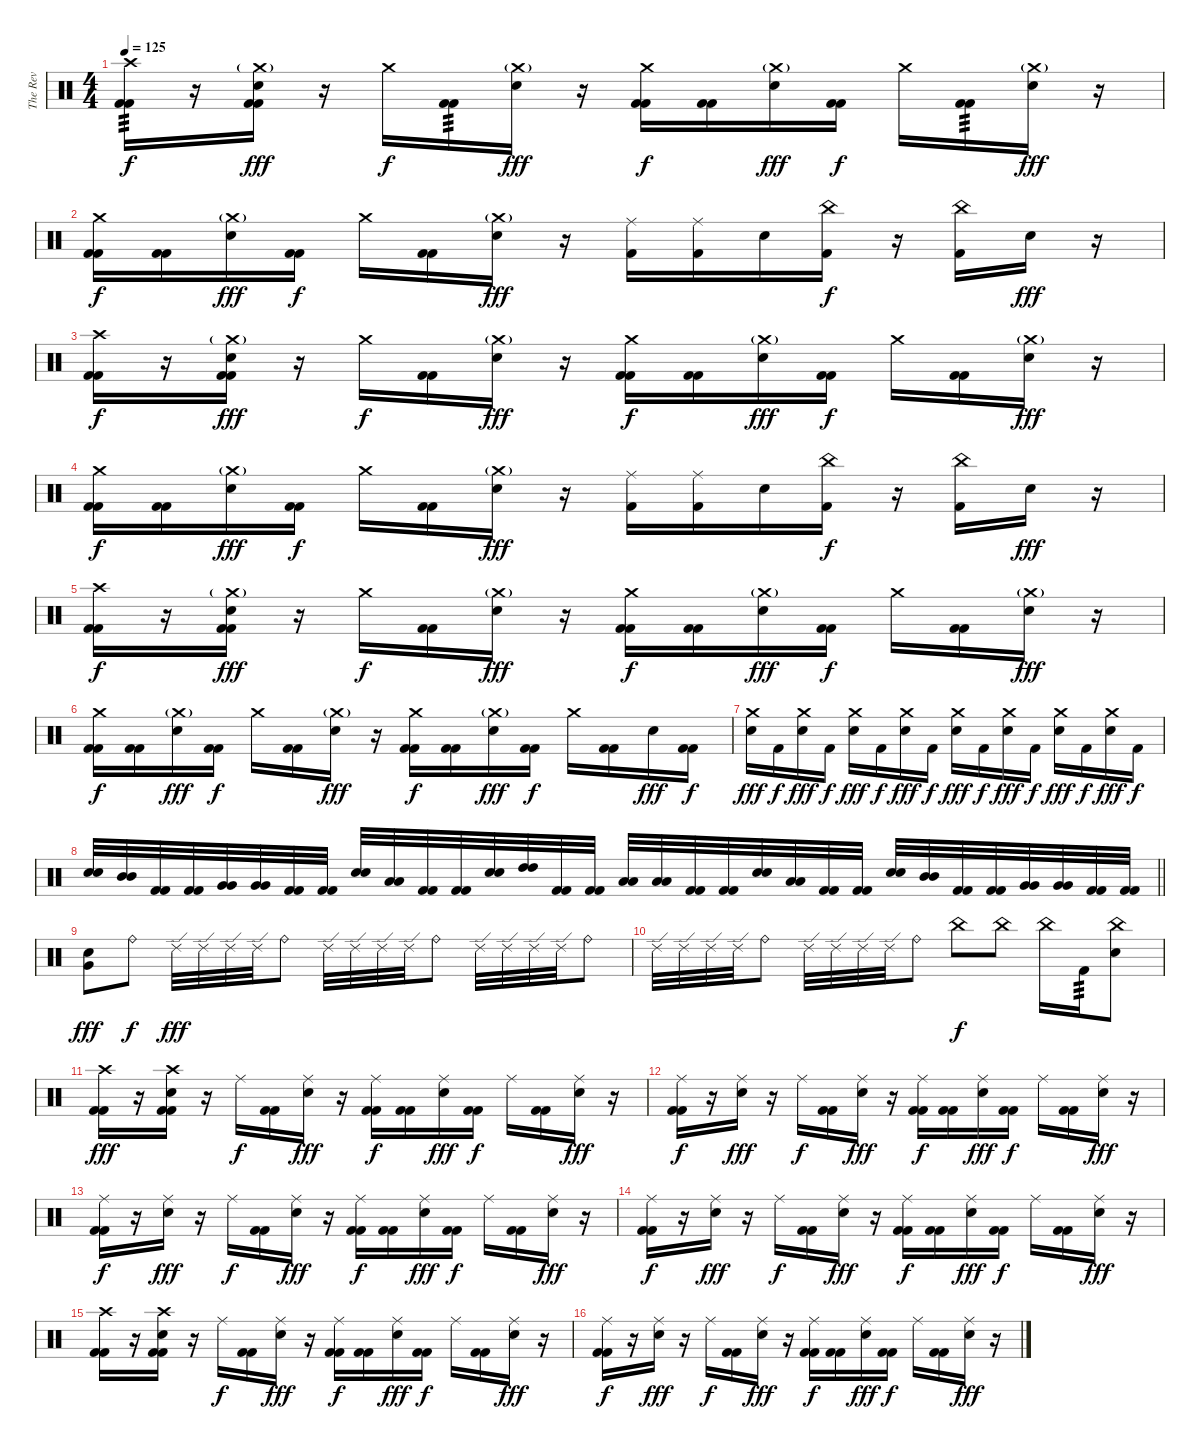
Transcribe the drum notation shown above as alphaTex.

\track ("The Rev" "The Rev") {instrument percussion}
\staff {score}
\articulation defaults
\ts (4 4)
\tempo 125
\clef neutral
\ks c
("Crash high (hit)" "Kick (hit) 2" "Kick (hit) 2").16{tp 3 dy f} r.16 ("Crash medium (hit)"{g} "Electric Snare (hit)" "Kick (hit) 2" "Kick (hit) 2").16{dy fff} r.16 "Crash medium (hit)".16{dy f} ("Kick (hit) 2" "Kick (hit) 2").16{tp 3} ("Crash medium (hit)"{g} "Electric Snare (hit)").16{dy fff} r.16 ("Crash medium (hit)" "Kick (hit) 2" "Kick (hit) 2").16{dy f} ("Kick (hit) 2" "Kick (hit) 2").16 ("Crash medium (hit)"{g} "Electric Snare (hit)").16{dy fff} ("Kick (hit) 2" "Kick (hit) 2").16{dy f} "Crash medium (hit)".16 ("Kick (hit) 2" "Kick (hit) 2").16{tp 3} ("Crash medium (hit)"{g} "Electric Snare (hit)").16{dy fff} r.16 |
("Crash medium (hit)" "Kick (hit) 2" "Kick (hit) 2").16{dy f} ("Kick (hit) 2" "Kick (hit) 2").16 ("Crash medium (hit)"{g} "Electric Snare (hit)").16{dy fff} ("Kick (hit) 2" "Kick (hit) 2").16{dy f} "Crash medium (hit)".16 ("Kick (hit) 2" "Kick (hit) 2").16 ("Crash medium (hit)"{g} "Electric Snare (hit)").16{dy fff} r.16 ("Ride (middle)" "Kick (hit) 2").16 ("Ride (middle)" "Kick (hit) 2").16 "Electric Snare (hit)".16 ("China (hit)" "Kick (hit) 2").16{dy f} r.16 ("China (hit)" "Kick (hit) 2").16 "Electric Snare (hit)".16{dy fff} r.16 |
("Crash high (hit)" "Kick (hit) 2" "Kick (hit) 2").16{dy f} r.16 ("Crash medium (hit)"{g} "Electric Snare (hit)" "Kick (hit) 2" "Kick (hit) 2").16{dy fff} r.16 "Crash medium (hit)".16{dy f} ("Kick (hit) 2" "Kick (hit) 2").16 ("Crash medium (hit)"{g} "Electric Snare (hit)").16{dy fff} r.16 ("Crash medium (hit)" "Kick (hit) 2" "Kick (hit) 2").16{dy f} ("Kick (hit) 2" "Kick (hit) 2").16 ("Crash medium (hit)"{g} "Electric Snare (hit)").16{dy fff} ("Kick (hit) 2" "Kick (hit) 2").16{dy f} "Crash medium (hit)".16 ("Kick (hit) 2" "Kick (hit) 2").16 ("Crash medium (hit)"{g} "Electric Snare (hit)").16{dy fff} r.16 |
("Crash medium (hit)" "Kick (hit) 2" "Kick (hit) 2").16{dy f} ("Kick (hit) 2" "Kick (hit) 2").16 ("Crash medium (hit)"{g} "Electric Snare (hit)").16{dy fff} ("Kick (hit) 2" "Kick (hit) 2").16{dy f} "Crash medium (hit)".16 ("Kick (hit) 2" "Kick (hit) 2").16 ("Crash medium (hit)"{g} "Electric Snare (hit)").16{dy fff} r.16 ("Ride (middle)" "Kick (hit) 2").16 ("Ride (middle)" "Kick (hit) 2").16 "Electric Snare (hit)".16 ("China (hit)" "Kick (hit) 2").16{dy f} r.16 ("China (hit)" "Kick (hit) 2").16 "Electric Snare (hit)".16{dy fff} r.16 |
("Crash high (hit)" "Kick (hit) 2" "Kick (hit) 2").16{dy f} r.16 ("Crash medium (hit)"{g} "Electric Snare (hit)" "Kick (hit) 2" "Kick (hit) 2").16{dy fff} r.16 "Crash medium (hit)".16{dy f} ("Kick (hit) 2" "Kick (hit) 2").16 ("Crash medium (hit)"{g} "Electric Snare (hit)").16{dy fff} r.16 ("Crash medium (hit)" "Kick (hit) 2" "Kick (hit) 2").16{dy f} ("Kick (hit) 2" "Kick (hit) 2").16 ("Crash medium (hit)"{g} "Electric Snare (hit)").16{dy fff} ("Kick (hit) 2" "Kick (hit) 2").16{dy f} "Crash medium (hit)".16 ("Kick (hit) 2" "Kick (hit) 2").16 ("Crash medium (hit)"{g} "Electric Snare (hit)").16{dy fff} r.16 |
("Crash medium (hit)" "Kick (hit) 2" "Kick (hit) 2").16{dy f} ("Kick (hit) 2" "Kick (hit) 2").16 ("Crash medium (hit)"{g} "Electric Snare (hit)").16{dy fff} ("Kick (hit) 2" "Kick (hit) 2").16{dy f} "Crash medium (hit)".16 ("Kick (hit) 2" "Kick (hit) 2").16 ("Crash medium (hit)"{g} "Electric Snare (hit)").16{dy fff} r.16 ("Crash medium (hit)" "Kick (hit) 2" "Kick (hit) 2").16{dy f} ("Kick (hit) 2" "Kick (hit) 2").16 ("Crash medium (hit)"{g} "Electric Snare (hit)").16{dy fff} ("Kick (hit) 2" "Kick (hit) 2").16{dy f} "Crash medium (hit)".16 ("Kick (hit) 2" "Kick (hit) 2").16 "Electric Snare (hit)".16{dy fff} ("Kick (hit) 2" "Kick (hit) 2").16{dy f} |
("Crash medium (hit)" "Electric Snare (hit)").16{dy fff} "Kick (hit) 2".16{dy f} ("Crash medium (hit)" "Electric Snare (hit)").16{dy fff} "Kick (hit) 2".16{dy f} ("Crash medium (hit)" "Electric Snare (hit)").16{dy fff} "Kick (hit) 2".16{dy f} ("Crash medium (hit)" "Electric Snare (hit)").16{dy fff} "Kick (hit) 2".16{dy f} ("Crash medium (hit)" "Electric Snare (hit)").16{dy fff} "Kick (hit) 2".16{dy f} ("Crash medium (hit)" "Electric Snare (hit)").16{dy fff} "Kick (hit) 2".16{dy f} ("Crash medium (hit)" "Electric Snare (hit)").16{dy fff} "Kick (hit) 2".16{dy f} ("Crash medium (hit)" "Electric Snare (hit)").16{dy fff} "Kick (hit) 2".16{dy f} |
\barLineRight lightlight
("Electric Snare (hit)" "Electric Snare (hit)").32 ("Mid Tom (hit)" "Mid Tom (hit)").32 ("Kick (hit) 2" "Kick (hit) 2").32 ("Kick (hit) 2" "Kick (hit) 2").32 ("Very Low Tom (hit)" "Very Low Tom (hit)").32 ("Very Low Tom (hit)" "Very Low Tom (hit)").32 ("Kick (hit) 2" "Kick (hit) 2").32 ("Kick (hit) 2" "Kick (hit) 2").32 ("Electric Snare (hit)" "Electric Snare (hit)").32 ("Low Tom (hit)" "Low Tom (hit)").32 ("Kick (hit) 2" "Kick (hit) 2").32 ("Kick (hit) 2" "Kick (hit) 2").32 ("Electric Snare (hit)" "Electric Snare (hit)").32 ("High Tom (hit)" "High Tom (hit)").32 ("Kick (hit) 2" "Kick (hit) 2").32 ("Kick (hit) 2" "Kick (hit) 2").32 ("Low Floor Tom (hit)" "Low Floor Tom (hit)").32 ("Low Floor Tom (hit)" "Low Floor Tom (hit)").32 ("Kick (hit) 2" "Kick (hit) 2").32 ("Kick (hit) 2" "Kick (hit) 2").32 ("Electric Snare (hit)" "Electric Snare (hit)").32 ("Low Tom (hit)" "Low Tom (hit)").32 ("Kick (hit) 2" "Kick (hit) 2").32 ("Kick (hit) 2" "Kick (hit) 2").32 ("Electric Snare (hit)" "Electric Snare (hit)").32 ("Mid Tom (hit)" "Mid Tom (hit)").32 ("Kick (hit) 2" "Kick (hit) 2").32 ("Kick (hit) 2" "Kick (hit) 2").32 ("Very Low Tom (hit)" "Very Low Tom (hit)").32 ("Very Low Tom (hit)" "Very Low Tom (hit)").32 ("Kick (hit) 2" "Kick (hit) 2").32 ("Kick (hit) 2" "Kick (hit) 2").32 |
("Electric Snare (hit)" "Very Low Tom (hit)").8{dy fff} "Ride (bell)".8{dy f} "Ride (edge) 2".32{dy fff} "Ride (edge) 2".32 "Ride (edge) 2".32 "Ride (edge) 2".32 "Ride (bell)".8 "Ride (edge) 2".32 "Ride (edge) 2".32 "Ride (edge) 2".32 "Ride (edge) 2".32 "Ride (bell)".8 "Ride (edge) 2".32 "Ride (edge) 2".32 "Ride (edge) 2".32 "Ride (edge) 2".32 "Ride (bell)".8 |
"Ride (edge) 2".32 "Ride (edge) 2".32 "Ride (edge) 2".32 "Ride (edge) 2".32 "Ride (bell)".8 "Ride (edge) 2".32 "Ride (edge) 2".32 "Ride (edge) 2".32 "Ride (edge) 2".32 "Ride (bell)".8 "China (hit)".8{dy f} "China (hit)".8 "China (hit)".16 "Kick (hit) 2".16{tp 3} ("China (hit)" "Electric Snare (hit)").8 |
("Crash high (hit)" "Kick (hit) 2" "Kick (hit) 2").16{dy fff} r.16 ("Crash high (hit)" "Electric Snare (hit)" "Kick (hit) 2" "Kick (hit) 2").16 r.16 "Ride (middle)".16{dy f} ("Kick (hit) 2" "Kick (hit) 2").16 ("Ride (middle)" "Electric Snare (hit)").16{dy fff} r.16 ("Ride (middle)" "Kick (hit) 2" "Kick (hit) 2").16{dy f} ("Kick (hit) 2" "Kick (hit) 2").16 ("Ride (middle)" "Electric Snare (hit)").16{dy fff} ("Kick (hit) 2" "Kick (hit) 2").16{dy f} "Ride (middle)".16 ("Kick (hit) 2" "Kick (hit) 2").16 ("Ride (middle)" "Electric Snare (hit)").16{dy fff} r.16 |
("Ride (middle)" "Kick (hit) 2" "Kick (hit) 2").16{dy f} r.16 ("Ride (middle)" "Electric Snare (hit)").16{dy fff} r.16 "Ride (middle)".16{dy f} ("Kick (hit) 2" "Kick (hit) 2").16 ("Ride (middle)" "Electric Snare (hit)").16{dy fff} r.16 ("Ride (middle)" "Kick (hit) 2" "Kick (hit) 2").16{dy f} ("Kick (hit) 2" "Kick (hit) 2").16 ("Ride (middle)" "Electric Snare (hit)").16{dy fff} ("Kick (hit) 2" "Kick (hit) 2").16{dy f} "Ride (middle)".16 ("Kick (hit) 2" "Kick (hit) 2").16 ("Ride (middle)" "Electric Snare (hit)").16{dy fff} r.16 |
("Ride (middle)" "Kick (hit) 2" "Kick (hit) 2").16{dy f} r.16 ("Ride (middle)" "Electric Snare (hit)").16{dy fff} r.16 "Ride (middle)".16{dy f} ("Kick (hit) 2" "Kick (hit) 2").16 ("Ride (middle)" "Electric Snare (hit)").16{dy fff} r.16 ("Ride (middle)" "Kick (hit) 2" "Kick (hit) 2").16{dy f} ("Kick (hit) 2" "Kick (hit) 2").16 ("Ride (middle)" "Electric Snare (hit)").16{dy fff} ("Kick (hit) 2" "Kick (hit) 2").16{dy f} "Ride (middle)".16 ("Kick (hit) 2" "Kick (hit) 2").16 ("Ride (middle)" "Electric Snare (hit)").16{dy fff} r.16 |
("Ride (middle)" "Kick (hit) 2" "Kick (hit) 2").16{dy f} r.16 ("Ride (middle)" "Electric Snare (hit)").16{dy fff} r.16 "Ride (middle)".16{dy f} ("Kick (hit) 2" "Kick (hit) 2").16 ("Ride (middle)" "Electric Snare (hit)").16{dy fff} r.16 ("Ride (middle)" "Kick (hit) 2" "Kick (hit) 2").16{dy f} ("Kick (hit) 2" "Kick (hit) 2").16 ("Ride (middle)" "Electric Snare (hit)").16{dy fff} ("Kick (hit) 2" "Kick (hit) 2").16{dy f} "Ride (middle)".16 ("Kick (hit) 2" "Kick (hit) 2").16 ("Ride (middle)" "Electric Snare (hit)").16{dy fff} r.16 |
("Crash high (hit)" "Kick (hit) 2" "Kick (hit) 2").16 r.16 ("Crash high (hit)" "Electric Snare (hit)" "Kick (hit) 2" "Kick (hit) 2").16 r.16 "Ride (middle)".16{dy f} ("Kick (hit) 2" "Kick (hit) 2").16 ("Ride (middle)" "Electric Snare (hit)").16{dy fff} r.16 ("Ride (middle)" "Kick (hit) 2" "Kick (hit) 2").16{dy f} ("Kick (hit) 2" "Kick (hit) 2").16 ("Ride (middle)" "Electric Snare (hit)").16{dy fff} ("Kick (hit) 2" "Kick (hit) 2").16{dy f} "Ride (middle)".16 ("Kick (hit) 2" "Kick (hit) 2").16 ("Ride (middle)" "Electric Snare (hit)").16{dy fff} r.16 |
("Ride (middle)" "Kick (hit) 2" "Kick (hit) 2").16{dy f} r.16 ("Ride (middle)" "Electric Snare (hit)").16{dy fff} r.16 "Ride (middle)".16{dy f} ("Kick (hit) 2" "Kick (hit) 2").16 ("Ride (middle)" "Electric Snare (hit)").16{dy fff} r.16 ("Ride (middle)" "Kick (hit) 2" "Kick (hit) 2").16{dy f} ("Kick (hit) 2" "Kick (hit) 2").16 ("Ride (middle)" "Electric Snare (hit)").16{dy fff} ("Kick (hit) 2" "Kick (hit) 2").16{dy f} "Ride (middle)".16 ("Kick (hit) 2" "Kick (hit) 2").16 ("Ride (middle)" "Electric Snare (hit)").16{dy fff} r.16
